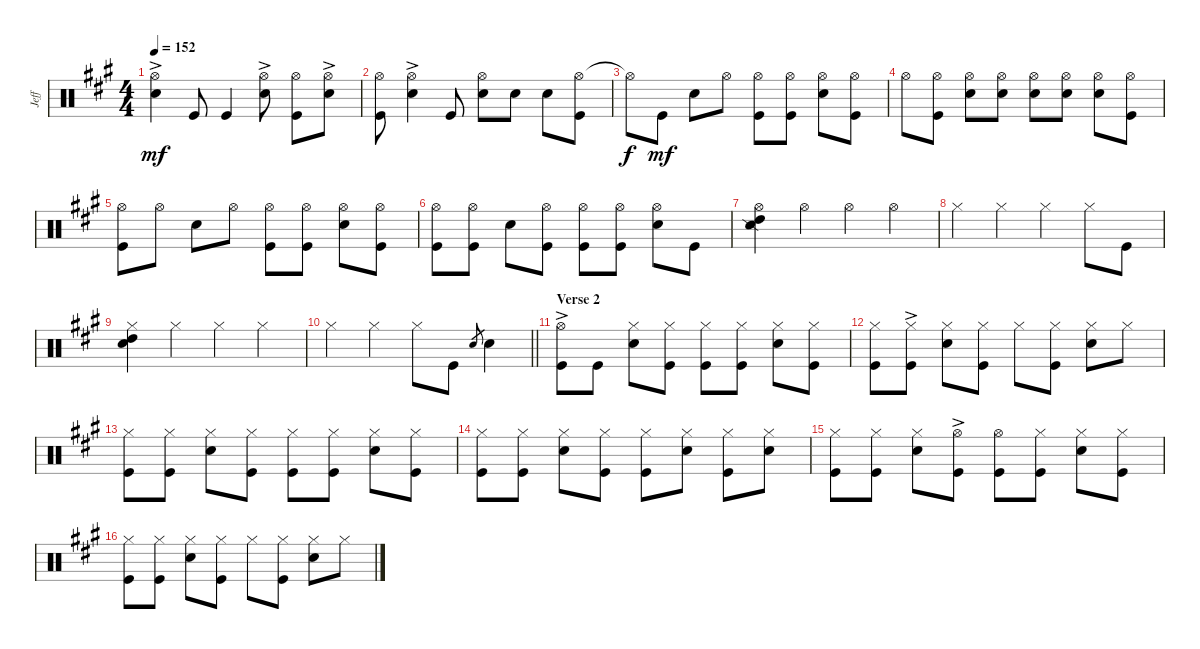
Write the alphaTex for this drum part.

\track ("Jeff" "Jeff") {instrument percussion}
\staff {score}
\articulation defaults
\ts (4 4)
\tempo 152
\clef neutral
\ks a
("Hi-Hat (open)" "Snare (hit) 2"{ac}).4{dy mf} "Kick (hit)".8 "Kick (hit)".4 ("Hi-Hat (open)"{ac} "Snare (hit) 2").8 ("Hi-Hat (open)" "Kick (hit)").8 ("Hi-Hat (open)"{ac} "Snare (hit) 2").8 |
("Hi-Hat (open)" "Kick (hit)").8 ("Hi-Hat (open)"{ac} "Snare (hit) 2").4 "Kick (hit)".8 ("Hi-Hat (open)" "Snare (hit) 2").8 "Snare (hit) 2".8 "Snare (hit) 2".8 ("Hi-Hat (open)" "Kick (hit)").8 |
"Hi-Hat (open)"{t}.8{dy f} "Kick (hit)".8{dy mf} "Snare (hit) 2".8 "Hi-Hat (open)".8 ("Hi-Hat (open)" "Kick (hit)").8 ("Hi-Hat (open)" "Kick (hit)").8 ("Hi-Hat (open)" "Snare (hit) 2").8 ("Hi-Hat (open)" "Kick (hit)").8 |
"Hi-Hat (open)".8 ("Hi-Hat (open)" "Kick (hit)").8 ("Hi-Hat (open)" "Snare (hit) 2").8 ("Hi-Hat (open)" "Snare (hit) 2").8 ("Hi-Hat (open)" "Snare (hit) 2").8 ("Hi-Hat (open)" "Snare (hit) 2").8 ("Hi-Hat (open)" "Snare (hit) 2").8 ("Hi-Hat (open)" "Kick (hit)").8 |
("Hi-Hat (open)" "Kick (hit)").8 "Hi-Hat (open)".8 "Snare (hit) 2".8 "Hi-Hat (open)".8 ("Hi-Hat (open)" "Kick (hit)").8 ("Hi-Hat (open)" "Kick (hit)").8 ("Hi-Hat (open)" "Snare (hit) 2").8 ("Hi-Hat (open)" "Kick (hit)").8 |
("Hi-Hat (open)" "Kick (hit)").8 ("Hi-Hat (open)" "Kick (hit)").8 "Snare (hit) 2".8 ("Hi-Hat (open)" "Kick (hit)").8 ("Hi-Hat (open)" "Kick (hit)").8 ("Hi-Hat (open)" "Kick (hit)").8 ("Hi-Hat (open)" "Snare (hit) 2").8 "Kick (hit)".8 |
("High Tom (hit)" "Snare (side stick) 2" "Hi-Hat (open)").4 "Hi-Hat (open)".4 "Hi-Hat (open)".4 "Hi-Hat (open)".4 |
"Hi-Hat (closed)".4 "Hi-Hat (closed)".4 "Hi-Hat (closed)".4 "Hi-Hat (closed)".8 "Kick (hit)".8 |
("Hi-Hat (closed)" "Snare (hit) 2" "High Tom (hit)").4 "Hi-Hat (closed)".4 "Hi-Hat (closed)".4 "Hi-Hat (closed)".4 |
\barLineRight lightlight "Hi-Hat (closed)".4 "Hi-Hat (closed)".4 "Hi-Hat (closed)".8 "Kick (hit)".8 "Snare (hit) 2".8{gr} "Snare (hit) 2".4
|
\section ("" "Verse 2")
("Kick (hit)" "Hi-Hat (open)"{ac}).8 "Kick (hit)".8 ("Snare (hit) 2" "Hi-Hat (closed)").8 ("Kick (hit)" "Hi-Hat (closed)").8 ("Kick (hit)" "Hi-Hat (closed)").8 ("Kick (hit)" "Hi-Hat (closed)").8 ("Snare (hit) 2" "Hi-Hat (closed)").8 ("Kick (hit)" "Hi-Hat (closed)").8 |
("Kick (hit)" "Hi-Hat (closed)").8 ("Kick (hit)" "Hi-Hat (closed)"{ac}).8 ("Snare (hit) 2" "Hi-Hat (closed)").8 ("Kick (hit)" "Hi-Hat (closed)").8 "Hi-Hat (closed)".8 ("Kick (hit)" "Hi-Hat (closed)").8 ("Snare (hit) 2" "Hi-Hat (closed)").8 "Hi-Hat (closed)".8 |
("Hi-Hat (closed)" "Kick (hit)").8 ("Hi-Hat (closed)" "Kick (hit)").8 ("Hi-Hat (closed)" "Snare (hit) 2").8 ("Hi-Hat (closed)" "Kick (hit)").8 ("Hi-Hat (closed)" "Kick (hit)").8 ("Hi-Hat (closed)" "Kick (hit)").8 ("Hi-Hat (closed)" "Snare (hit) 2").8 ("Hi-Hat (closed)" "Kick (hit)").8 |
("Hi-Hat (closed)" "Kick (hit)").8 ("Hi-Hat (closed)" "Kick (hit)").8 ("Hi-Hat (closed)" "Snare (hit) 2").8 ("Hi-Hat (closed)" "Kick (hit)").8 ("Hi-Hat (closed)" "Kick (hit)").8 ("Hi-Hat (closed)" "Snare (hit) 2").8 ("Hi-Hat (closed)" "Kick (hit)").8 ("Hi-Hat (closed)" "Snare (hit) 2").8 |
("Hi-Hat (closed)" "Kick (hit)").8 ("Hi-Hat (closed)" "Kick (hit)").8 ("Hi-Hat (closed)" "Snare (hit) 2").8 ("Hi-Hat (open)"{ac} "Kick (hit)").8 ("Hi-Hat (open)" "Kick (hit)").8 ("Hi-Hat (closed)" "Kick (hit)").8 ("Hi-Hat (closed)" "Snare (hit) 2").8 ("Hi-Hat (closed)" "Kick (hit)").8 |
("Hi-Hat (closed)" "Kick (hit)").8 ("Hi-Hat (closed)" "Kick (hit)").8 ("Hi-Hat (closed)" "Snare (hit) 2").8 ("Hi-Hat (closed)" "Kick (hit)").8 "Hi-Hat (closed)".8 ("Hi-Hat (closed)" "Kick (hit)").8 ("Hi-Hat (closed)" "Snare (hit) 2").8 "Hi-Hat (closed)".8
